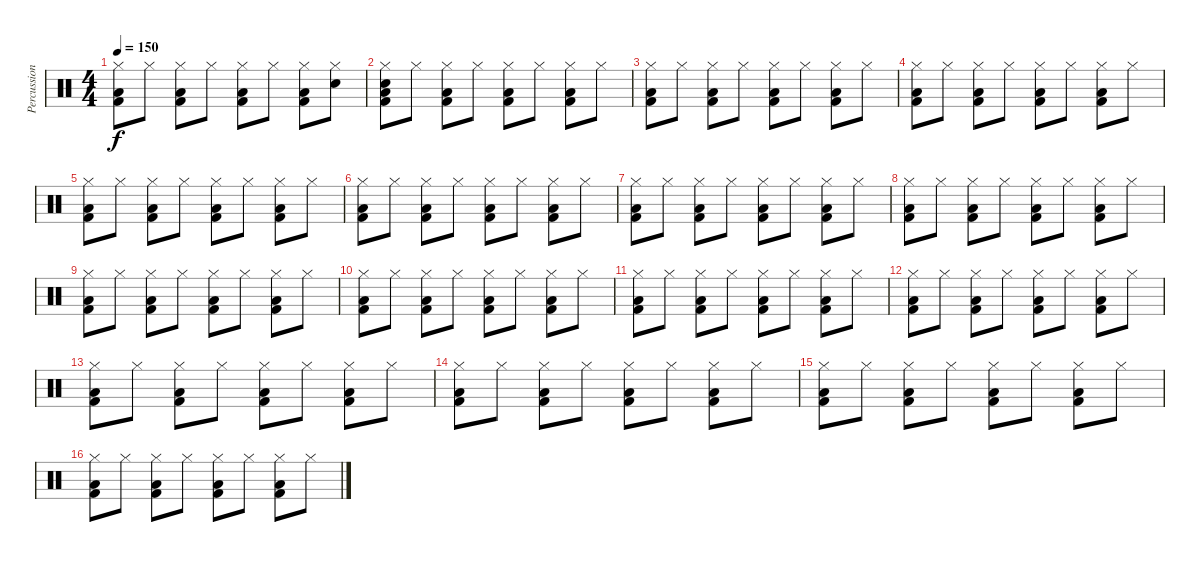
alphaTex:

\track ("Percussions" "Percussion") {instrument percussion}
\staff {score}
\articulation defaults
\ts (4 4)
\tempo 150
\clef neutral
\ks c
("Kick (hit) 2" "Low Floor Tom (hit)" "Hi-Hat (closed)").8{dy f} "Hi-Hat (closed)".8 ("Kick (hit) 2" "Low Floor Tom (hit)" "Hi-Hat (closed)").8 "Hi-Hat (closed)".8 ("Kick (hit) 2" "Low Floor Tom (hit)" "Hi-Hat (closed)").8 "Hi-Hat (closed)".8 ("Kick (hit) 2" "Low Floor Tom (hit)" "Hi-Hat (closed)").8 ("Snare (hit) 2" "Hi-Hat (closed)").8 |
("Kick (hit) 2" "Low Floor Tom (hit)" "Snare (hit) 2" "Hi-Hat (closed)").8 "Hi-Hat (closed)".8 ("Kick (hit) 2" "Low Floor Tom (hit)" "Hi-Hat (closed)").8 "Hi-Hat (closed)".8 ("Kick (hit) 2" "Low Floor Tom (hit)" "Hi-Hat (closed)").8 "Hi-Hat (closed)".8 ("Kick (hit) 2" "Low Floor Tom (hit)" "Hi-Hat (closed)").8 "Hi-Hat (closed)".8 |
("Kick (hit) 2" "Low Floor Tom (hit)" "Hi-Hat (closed)").8 "Hi-Hat (closed)".8 ("Kick (hit) 2" "Low Floor Tom (hit)" "Hi-Hat (closed)").8 "Hi-Hat (closed)".8 ("Kick (hit) 2" "Low Floor Tom (hit)" "Hi-Hat (closed)").8 "Hi-Hat (closed)".8 ("Kick (hit) 2" "Low Floor Tom (hit)" "Hi-Hat (closed)").8 "Hi-Hat (closed)".8 |
("Kick (hit) 2" "Low Floor Tom (hit)" "Hi-Hat (closed)").8 "Hi-Hat (closed)".8 ("Kick (hit) 2" "Low Floor Tom (hit)" "Hi-Hat (closed)").8 "Hi-Hat (closed)".8 ("Kick (hit) 2" "Low Floor Tom (hit)" "Hi-Hat (closed)").8 "Hi-Hat (closed)".8 ("Kick (hit) 2" "Low Floor Tom (hit)" "Hi-Hat (closed)").8 "Hi-Hat (closed)".8 |
("Kick (hit) 2" "Low Floor Tom (hit)" "Hi-Hat (closed)").8 "Hi-Hat (closed)".8 ("Kick (hit) 2" "Low Floor Tom (hit)" "Hi-Hat (closed)").8 "Hi-Hat (closed)".8 ("Kick (hit) 2" "Low Floor Tom (hit)" "Hi-Hat (closed)").8 "Hi-Hat (closed)".8 ("Kick (hit) 2" "Low Floor Tom (hit)" "Hi-Hat (closed)").8 "Hi-Hat (closed)".8 |
("Kick (hit) 2" "Low Floor Tom (hit)" "Hi-Hat (closed)").8 "Hi-Hat (closed)".8 ("Kick (hit) 2" "Low Floor Tom (hit)" "Hi-Hat (closed)").8 "Hi-Hat (closed)".8 ("Kick (hit) 2" "Low Floor Tom (hit)" "Hi-Hat (closed)").8 "Hi-Hat (closed)".8 ("Kick (hit) 2" "Low Floor Tom (hit)" "Hi-Hat (closed)").8 "Hi-Hat (closed)".8 |
("Kick (hit) 2" "Low Floor Tom (hit)" "Hi-Hat (closed)").8 "Hi-Hat (closed)".8 ("Kick (hit) 2" "Low Floor Tom (hit)" "Hi-Hat (closed)").8 "Hi-Hat (closed)".8 ("Kick (hit) 2" "Low Floor Tom (hit)" "Hi-Hat (closed)").8 "Hi-Hat (closed)".8 ("Kick (hit) 2" "Low Floor Tom (hit)" "Hi-Hat (closed)").8 "Hi-Hat (closed)".8 |
("Kick (hit) 2" "Low Floor Tom (hit)" "Hi-Hat (closed)").8 "Hi-Hat (closed)".8 ("Kick (hit) 2" "Low Floor Tom (hit)" "Hi-Hat (closed)").8 "Hi-Hat (closed)".8 ("Kick (hit) 2" "Low Floor Tom (hit)" "Hi-Hat (closed)").8 "Hi-Hat (closed)".8 ("Kick (hit) 2" "Low Floor Tom (hit)" "Hi-Hat (closed)").8 "Hi-Hat (closed)".8 |
("Kick (hit) 2" "Low Floor Tom (hit)" "Hi-Hat (closed)").8 "Hi-Hat (closed)".8 ("Kick (hit) 2" "Low Floor Tom (hit)" "Hi-Hat (closed)").8 "Hi-Hat (closed)".8 ("Kick (hit) 2" "Low Floor Tom (hit)" "Hi-Hat (closed)").8 "Hi-Hat (closed)".8 ("Kick (hit) 2" "Low Floor Tom (hit)" "Hi-Hat (closed)").8 "Hi-Hat (closed)".8 |
("Kick (hit) 2" "Low Floor Tom (hit)" "Hi-Hat (closed)").8 "Hi-Hat (closed)".8 ("Kick (hit) 2" "Low Floor Tom (hit)" "Hi-Hat (closed)").8 "Hi-Hat (closed)".8 ("Kick (hit) 2" "Low Floor Tom (hit)" "Hi-Hat (closed)").8 "Hi-Hat (closed)".8 ("Kick (hit) 2" "Low Floor Tom (hit)" "Hi-Hat (closed)").8 "Hi-Hat (closed)".8 |
("Kick (hit) 2" "Low Floor Tom (hit)" "Hi-Hat (closed)").8 "Hi-Hat (closed)".8 ("Kick (hit) 2" "Low Floor Tom (hit)" "Hi-Hat (closed)").8 "Hi-Hat (closed)".8 ("Kick (hit) 2" "Low Floor Tom (hit)" "Hi-Hat (closed)").8 "Hi-Hat (closed)".8 ("Kick (hit) 2" "Low Floor Tom (hit)" "Hi-Hat (closed)").8 "Hi-Hat (closed)".8 |
("Kick (hit) 2" "Low Floor Tom (hit)" "Hi-Hat (closed)").8 "Hi-Hat (closed)".8 ("Kick (hit) 2" "Low Floor Tom (hit)" "Hi-Hat (closed)").8 "Hi-Hat (closed)".8 ("Kick (hit) 2" "Low Floor Tom (hit)" "Hi-Hat (closed)").8 "Hi-Hat (closed)".8 ("Kick (hit) 2" "Low Floor Tom (hit)" "Hi-Hat (closed)").8 "Hi-Hat (closed)".8 |
("Kick (hit) 2" "Low Floor Tom (hit)" "Hi-Hat (closed)").8 "Hi-Hat (closed)".8 ("Kick (hit) 2" "Low Floor Tom (hit)" "Hi-Hat (closed)").8 "Hi-Hat (closed)".8 ("Kick (hit) 2" "Low Floor Tom (hit)" "Hi-Hat (closed)").8 "Hi-Hat (closed)".8 ("Kick (hit) 2" "Low Floor Tom (hit)" "Hi-Hat (closed)").8 "Hi-Hat (closed)".8 |
("Kick (hit) 2" "Low Floor Tom (hit)" "Hi-Hat (closed)").8 "Hi-Hat (closed)".8 ("Kick (hit) 2" "Low Floor Tom (hit)" "Hi-Hat (closed)").8 "Hi-Hat (closed)".8 ("Kick (hit) 2" "Low Floor Tom (hit)" "Hi-Hat (closed)").8 "Hi-Hat (closed)".8 ("Kick (hit) 2" "Low Floor Tom (hit)" "Hi-Hat (closed)").8 "Hi-Hat (closed)".8 |
("Kick (hit) 2" "Low Floor Tom (hit)" "Hi-Hat (closed)").8 "Hi-Hat (closed)".8 ("Kick (hit) 2" "Low Floor Tom (hit)" "Hi-Hat (closed)").8 "Hi-Hat (closed)".8 ("Kick (hit) 2" "Low Floor Tom (hit)" "Hi-Hat (closed)").8 "Hi-Hat (closed)".8 ("Kick (hit) 2" "Low Floor Tom (hit)" "Hi-Hat (closed)").8 "Hi-Hat (closed)".8 |
("Kick (hit) 2" "Low Floor Tom (hit)" "Hi-Hat (closed)").8 "Hi-Hat (closed)".8 ("Kick (hit) 2" "Low Floor Tom (hit)" "Hi-Hat (closed)").8 "Hi-Hat (closed)".8 ("Kick (hit) 2" "Low Floor Tom (hit)" "Hi-Hat (closed)").8 "Hi-Hat (closed)".8 ("Kick (hit) 2" "Low Floor Tom (hit)" "Hi-Hat (closed)").8 "Hi-Hat (closed)".8
